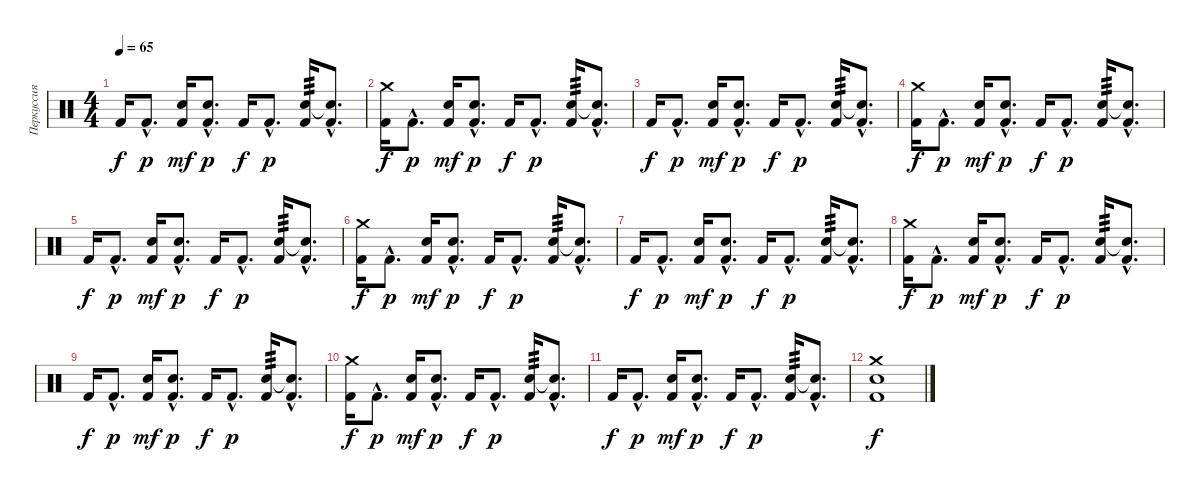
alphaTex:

\track ("Перкуссия" "Перкуссия") {instrument percussion}
\staff {score}
\articulation defaults
\ts (4 4)
\tempo 65
\clef neutral
\ks c "Kick (hit) 2".16{dy f} "Kick (hit) 2"{hac}.8{d dy p}
("Kick (hit) 2" "Electric Snare (hit)").16{dy mf} ("Kick (hit) 2"{hac} "Electric Snare (hit)"{hac}).8{d dy p} "Kick (hit) 2".16{dy f} "Kick (hit) 2"{hac}.8{d dy p} ("Kick (hit) 2" "Electric Snare (hit)").16{tp 3} ("Kick (hit) 2"{hac} "Snare (hit)"{hac t}).8{d} |
("Kick (hit) 2" "Crash medium (hit)").16{dy f} "Kick (hit) 2"{hac}.8{d dy p} ("Kick (hit) 2" "Electric Snare (hit)").16{dy mf} ("Kick (hit) 2"{hac} "Electric Snare (hit)"{hac}).8{d dy p} "Kick (hit) 2".16{dy f} "Kick (hit) 2"{hac}.8{d dy p} ("Kick (hit) 2" "Electric Snare (hit)").16{tp 3} ("Kick (hit) 2"{hac} "Snare (hit)"{hac t}).8{d} |
"Kick (hit) 2".16{dy f} "Kick (hit) 2"{hac}.8{d dy p} ("Kick (hit) 2" "Electric Snare (hit)").16{dy mf} ("Kick (hit) 2"{hac} "Electric Snare (hit)"{hac}).8{d dy p} "Kick (hit) 2".16{dy f} "Kick (hit) 2"{hac}.8{d dy p} ("Kick (hit) 2" "Electric Snare (hit)").16{tp 3} ("Kick (hit) 2"{hac} "Snare (hit)"{hac t}).8{d} |
("Kick (hit) 2" "Crash medium (hit)").16{dy f} "Kick (hit) 2"{hac}.8{d dy p} ("Kick (hit) 2" "Electric Snare (hit)").16{dy mf} ("Kick (hit) 2"{hac} "Electric Snare (hit)"{hac}).8{d dy p} "Kick (hit) 2".16{dy f} "Kick (hit) 2"{hac}.8{d dy p} ("Kick (hit) 2" "Electric Snare (hit)").16{tp 3} ("Kick (hit) 2"{hac} "Snare (hit)"{hac t}).8{d} |
"Kick (hit) 2".16{dy f} "Kick (hit) 2"{hac}.8{d dy p} ("Kick (hit) 2" "Electric Snare (hit)").16{dy mf} ("Kick (hit) 2"{hac} "Electric Snare (hit)"{hac}).8{d dy p} "Kick (hit) 2".16{dy f} "Kick (hit) 2"{hac}.8{d dy p} ("Kick (hit) 2" "Electric Snare (hit)").16{tp 3} ("Kick (hit) 2"{hac} "Snare (hit)"{hac t}).8{d} |
("Kick (hit) 2" "Crash medium (hit)").16{dy f} "Kick (hit) 2"{hac}.8{d dy p} ("Kick (hit) 2" "Electric Snare (hit)").16{dy mf} ("Kick (hit) 2"{hac} "Electric Snare (hit)"{hac}).8{d dy p} "Kick (hit) 2".16{dy f} "Kick (hit) 2"{hac}.8{d dy p} ("Kick (hit) 2" "Electric Snare (hit)").16{tp 3} ("Kick (hit) 2"{hac} "Snare (hit)"{hac t}).8{d} |
"Kick (hit) 2".16{dy f} "Kick (hit) 2"{hac}.8{d dy p} ("Kick (hit) 2" "Electric Snare (hit)").16{dy mf} ("Kick (hit) 2"{hac} "Electric Snare (hit)"{hac}).8{d dy p} "Kick (hit) 2".16{dy f} "Kick (hit) 2"{hac}.8{d dy p} ("Kick (hit) 2" "Electric Snare (hit)").16{tp 3} ("Kick (hit) 2"{hac} "Snare (hit)"{hac t}).8{d} |
("Kick (hit) 2" "Crash medium (hit)").16{dy f} "Kick (hit) 2"{hac}.8{d dy p} ("Kick (hit) 2" "Electric Snare (hit)").16{dy mf} ("Kick (hit) 2"{hac} "Electric Snare (hit)"{hac}).8{d dy p} "Kick (hit) 2".16{dy f} "Kick (hit) 2"{hac}.8{d dy p} ("Kick (hit) 2" "Electric Snare (hit)").16{tp 3} ("Kick (hit) 2"{hac} "Snare (hit)"{hac t}).8{d} |
"Kick (hit) 2".16{dy f} "Kick (hit) 2"{hac}.8{d dy p} ("Kick (hit) 2" "Electric Snare (hit)").16{dy mf} ("Kick (hit) 2"{hac} "Electric Snare (hit)"{hac}).8{d dy p} "Kick (hit) 2".16{dy f} "Kick (hit) 2"{hac}.8{d dy p} ("Kick (hit) 2" "Electric Snare (hit)").16{tp 3} ("Kick (hit) 2"{hac} "Snare (hit)"{hac t}).8{d} |
("Kick (hit) 2" "Crash medium (hit)").16{dy f} "Kick (hit) 2"{hac}.8{d dy p} ("Kick (hit) 2" "Electric Snare (hit)").16{dy mf} ("Kick (hit) 2"{hac} "Electric Snare (hit)"{hac}).8{d dy p} "Kick (hit) 2".16{dy f} "Kick (hit) 2"{hac}.8{d dy p} ("Kick (hit) 2" "Electric Snare (hit)").16{tp 3} ("Kick (hit) 2"{hac} "Snare (hit)"{hac t}).8{d} |
"Kick (hit) 2".16{dy f} "Kick (hit) 2"{hac}.8{d dy p} ("Kick (hit) 2" "Electric Snare (hit)").16{dy mf} ("Kick (hit) 2"{hac} "Electric Snare (hit)"{hac}).8{d dy p} "Kick (hit) 2".16{dy f} "Kick (hit) 2"{hac}.8{d dy p} ("Kick (hit) 2" "Electric Snare (hit)").16{tp 3} ("Kick (hit) 2"{hac} "Snare (hit)"{hac t}).8{d} |
("Kick (hit) 2" "Electric Snare (hit)" "Crash medium (hit)").1{dy f}
